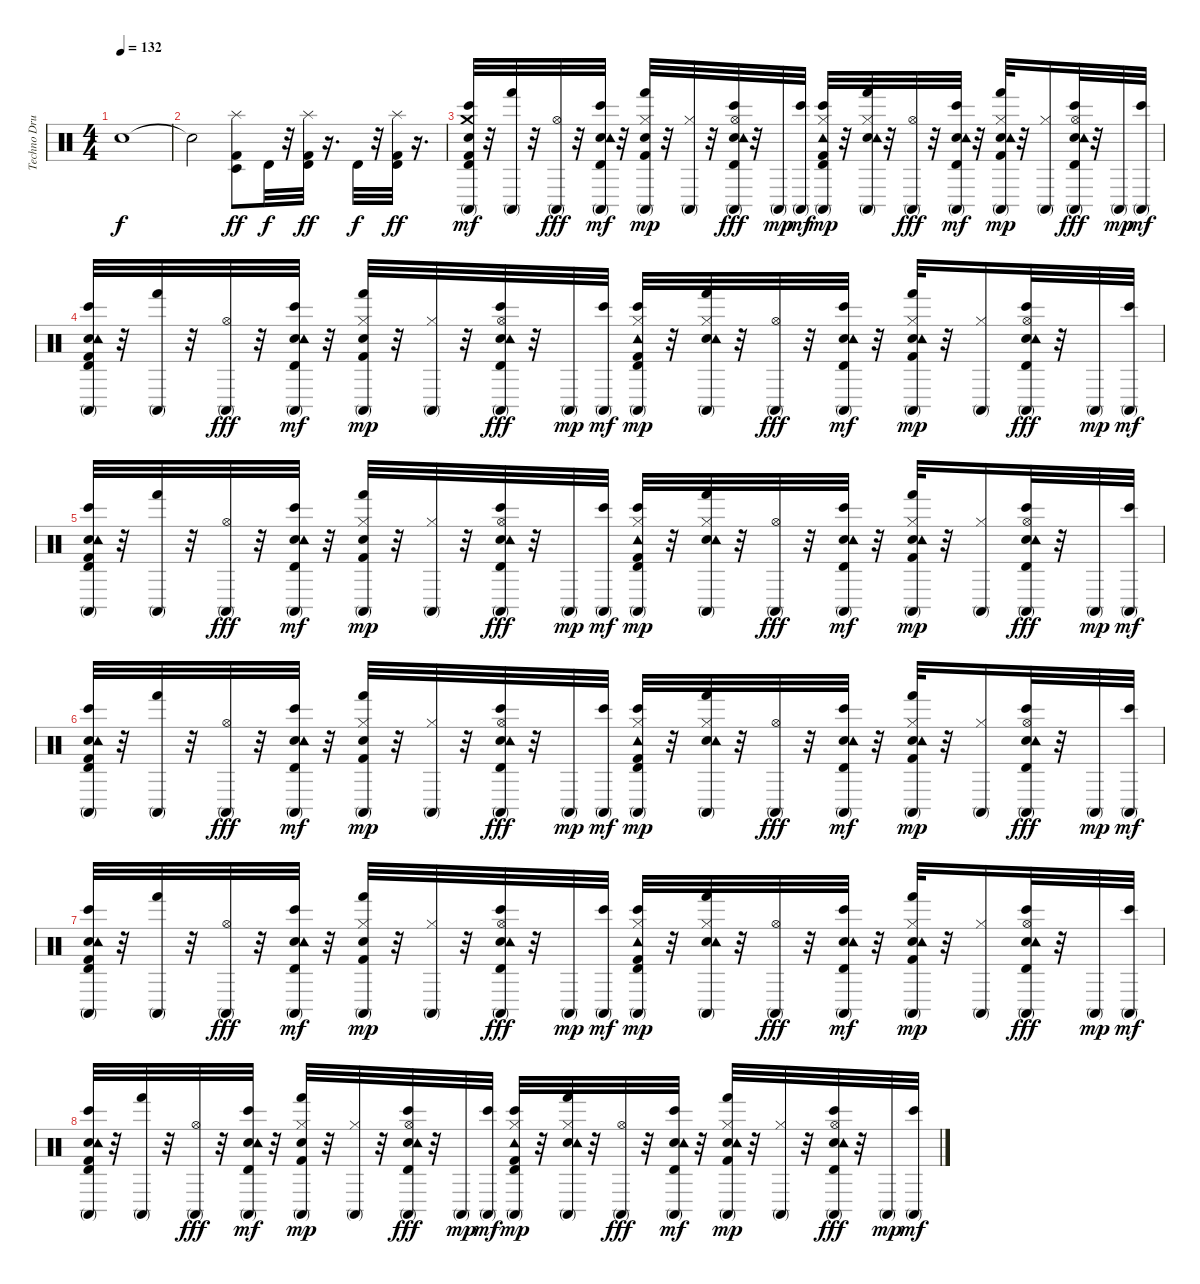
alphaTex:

\track ("Techno Drums" "Techno Dru") {instrument percussion}
\staff {score}
\articulation defaults
\ts (4 4)
\tempo 132
\clef neutral
\ks c "Snare (hit)"{t}.1{dy f}
|
"Snare (hit)"{t}.2 ("Timbale low (hit)" "Splash (hit)" "Kick (hit) 2").8{dy ff} "Timbale high (hit)".32{dy f} r.32 ("Timbale high (hit)" "Splash (hit)" "Kick (hit) 2").32{dy ff} r.16{d} "Timbale high (hit)".32{dy f} r.32 ("Timbale high (hit)" "Splash (hit)" "Kick (hit) 2").32{dy ff} r.16{d} |
("Kick (hit) 2" "Hand Clap (hit)" "Crash medium (hit)" "Conga high (mute)" "Bongo High (hit)" "Timbale high (hit)").32{dy mf} r.32 ("Conga high (mute)" "Hand (hit)").32 r.32 ("Conga high (mute)" "Hi-Hat (open)").32{dy fff} r.32 ("Hand Clap (hit)" "Tambourine (hit)" "Conga high (mute)" "Bongo High (hit)" "Timbale high (hit)").32{dy mf} r.32 ("Kick (hit) 2" "Hand Clap (hit)" "Conga high (mute)" "Hand (hit)" "Hi-Hat (closed)").32{dy mp} r.32 ("Conga high (mute)" "Hi-Hat (closed)").32 r.32 ("Hand Clap (hit)" "Tambourine (hit)" "Conga high (mute)" "Bongo High (hit)" "Timbale high (hit)" "Hi-Hat (open)").32{dy fff} r.32 "Conga high (mute)".32{dy mp} ("Conga high (mute)" "Bongo High (hit)").32{dy mf} ("Kick (hit) 2" "Tambourine (hit)" "Conga high (mute)" "Bongo High (hit)" "Timbale high (hit)" "Hi-Hat (closed)").32{dy mp} r.32 ("Hand Clap (hit)" "Tambourine (hit)" "Conga high (mute)" "Hand (hit)" "Hi-Hat (closed)").32 r.32 ("Conga high (mute)" "Hi-Hat (open)").32{dy fff} r.32 ("Hand Clap (hit)" "Tambourine (hit)" "Conga high (mute)" "Bongo High (hit)" "Timbale high (hit)").32{dy mf} r.32 ("Kick (hit) 2" "Hand Clap (hit)" "Tambourine (hit)" "Conga high (mute)" "Hand (hit)" "Hi-Hat (closed)").32{dy mp} r.32 ("Conga high (mute)" "Hi-Hat (closed)").16 ("Hand Clap (hit)" "Tambourine (hit)" "Conga high (mute)" "Bongo High (hit)" "Timbale high (hit)" "Hi-Hat (open)").32{dy fff} r.32 "Conga high (mute)".32{dy mp} ("Conga high (mute)" "Bongo High (hit)").32{dy mf} |
("Kick (hit) 2" "Hand Clap (hit)" "Tambourine (hit)" "Conga high (mute)" "Bongo High (hit)" "Timbale high (hit)").32 r.32 ("Conga high (mute)" "Hand (hit)").32 r.32 ("Conga high (mute)" "Hi-Hat (open)").32{dy fff} r.32 ("Hand Clap (hit)" "Tambourine (hit)" "Conga high (mute)" "Bongo High (hit)" "Timbale high (hit)").32{dy mf} r.32 ("Kick (hit) 2" "Hand Clap (hit)" "Conga high (mute)" "Hand (hit)" "Hi-Hat (closed)").32{dy mp} r.32 ("Conga high (mute)" "Hi-Hat (closed)").32 r.32 ("Hand Clap (hit)" "Tambourine (hit)" "Conga high (mute)" "Bongo High (hit)" "Timbale high (hit)" "Hi-Hat (open)").32{dy fff} r.32 "Conga high (mute)".32{dy mp} ("Conga high (mute)" "Bongo High (hit)").32{dy mf} ("Kick (hit) 2" "Tambourine (hit)" "Conga high (mute)" "Bongo High (hit)" "Timbale high (hit)" "Hi-Hat (closed)").32{dy mp} r.32 ("Hand Clap (hit)" "Tambourine (hit)" "Conga high (mute)" "Hand (hit)" "Hi-Hat (closed)").32 r.32 ("Conga high (mute)" "Hi-Hat (open)").32{dy fff} r.32 ("Hand Clap (hit)" "Tambourine (hit)" "Conga high (mute)" "Bongo High (hit)" "Timbale high (hit)").32{dy mf} r.32 ("Kick (hit) 2" "Hand Clap (hit)" "Tambourine (hit)" "Conga high (mute)" "Hand (hit)" "Hi-Hat (closed)").32{dy mp} r.32 ("Conga high (mute)" "Hi-Hat (closed)").16 ("Hand Clap (hit)" "Tambourine (hit)" "Conga high (mute)" "Bongo High (hit)" "Timbale high (hit)" "Hi-Hat (open)").32{dy fff} r.32 "Conga high (mute)".32{dy mp} ("Conga high (mute)" "Bongo High (hit)").32{dy mf} |
("Kick (hit) 2" "Hand Clap (hit)" "Tambourine (hit)" "Conga high (mute)" "Bongo High (hit)" "Timbale high (hit)").32 r.32 ("Conga high (mute)" "Hand (hit)").32 r.32 ("Conga high (mute)" "Hi-Hat (open)").32{dy fff} r.32 ("Hand Clap (hit)" "Tambourine (hit)" "Conga high (mute)" "Bongo High (hit)" "Timbale high (hit)").32{dy mf} r.32 ("Kick (hit) 2" "Hand Clap (hit)" "Conga high (mute)" "Hand (hit)" "Hi-Hat (closed)").32{dy mp} r.32 ("Conga high (mute)" "Hi-Hat (closed)").32 r.32 ("Hand Clap (hit)" "Tambourine (hit)" "Conga high (mute)" "Bongo High (hit)" "Timbale high (hit)" "Hi-Hat (open)").32{dy fff} r.32 "Conga high (mute)".32{dy mp} ("Conga high (mute)" "Bongo High (hit)").32{dy mf} ("Kick (hit) 2" "Tambourine (hit)" "Conga high (mute)" "Bongo High (hit)" "Timbale high (hit)" "Hi-Hat (closed)").32{dy mp} r.32 ("Hand Clap (hit)" "Tambourine (hit)" "Conga high (mute)" "Hand (hit)" "Hi-Hat (closed)").32 r.32 ("Conga high (mute)" "Hi-Hat (open)").32{dy fff} r.32 ("Hand Clap (hit)" "Tambourine (hit)" "Conga high (mute)" "Bongo High (hit)" "Timbale high (hit)").32{dy mf} r.32 ("Kick (hit) 2" "Hand Clap (hit)" "Tambourine (hit)" "Conga high (mute)" "Hand (hit)" "Hi-Hat (closed)").32{dy mp} r.32 ("Conga high (mute)" "Hi-Hat (closed)").16 ("Hand Clap (hit)" "Tambourine (hit)" "Conga high (mute)" "Bongo High (hit)" "Timbale high (hit)" "Hi-Hat (open)").32{dy fff} r.32 "Conga high (mute)".32{dy mp} ("Conga high (mute)" "Bongo High (hit)").32{dy mf} |
("Kick (hit) 2" "Hand Clap (hit)" "Tambourine (hit)" "Conga high (mute)" "Bongo High (hit)" "Timbale high (hit)").32 r.32 ("Conga high (mute)" "Hand (hit)").32 r.32 ("Conga high (mute)" "Hi-Hat (open)").32{dy fff} r.32 ("Hand Clap (hit)" "Tambourine (hit)" "Conga high (mute)" "Bongo High (hit)" "Timbale high (hit)").32{dy mf} r.32 ("Kick (hit) 2" "Hand Clap (hit)" "Conga high (mute)" "Hand (hit)" "Hi-Hat (closed)").32{dy mp} r.32 ("Conga high (mute)" "Hi-Hat (closed)").32 r.32 ("Hand Clap (hit)" "Tambourine (hit)" "Conga high (mute)" "Bongo High (hit)" "Timbale high (hit)" "Hi-Hat (open)").32{dy fff} r.32 "Conga high (mute)".32{dy mp} ("Conga high (mute)" "Bongo High (hit)").32{dy mf} ("Kick (hit) 2" "Tambourine (hit)" "Conga high (mute)" "Bongo High (hit)" "Timbale high (hit)" "Hi-Hat (closed)").32{dy mp} r.32 ("Hand Clap (hit)" "Tambourine (hit)" "Conga high (mute)" "Hand (hit)" "Hi-Hat (closed)").32 r.32 ("Conga high (mute)" "Hi-Hat (open)").32{dy fff} r.32 ("Hand Clap (hit)" "Tambourine (hit)" "Conga high (mute)" "Bongo High (hit)" "Timbale high (hit)").32{dy mf} r.32 ("Kick (hit) 2" "Hand Clap (hit)" "Tambourine (hit)" "Conga high (mute)" "Hand (hit)" "Hi-Hat (closed)").32{dy mp} r.32 ("Conga high (mute)" "Hi-Hat (closed)").16 ("Hand Clap (hit)" "Tambourine (hit)" "Conga high (mute)" "Bongo High (hit)" "Timbale high (hit)" "Hi-Hat (open)").32{dy fff} r.32 "Conga high (mute)".32{dy mp} ("Conga high (mute)" "Bongo High (hit)").32{dy mf} |
("Kick (hit) 2" "Hand Clap (hit)" "Tambourine (hit)" "Conga high (mute)" "Bongo High (hit)" "Timbale high (hit)").32 r.32 ("Conga high (mute)" "Hand (hit)").32 r.32 ("Conga high (mute)" "Hi-Hat (open)").32{dy fff} r.32 ("Hand Clap (hit)" "Tambourine (hit)" "Conga high (mute)" "Bongo High (hit)" "Timbale high (hit)").32{dy mf} r.32 ("Kick (hit) 2" "Hand Clap (hit)" "Conga high (mute)" "Hand (hit)" "Hi-Hat (closed)").32{dy mp} r.32 ("Conga high (mute)" "Hi-Hat (closed)").32 r.32 ("Hand Clap (hit)" "Tambourine (hit)" "Conga high (mute)" "Bongo High (hit)" "Timbale high (hit)" "Hi-Hat (open)").32{dy fff} r.32 "Conga high (mute)".32{dy mp} ("Conga high (mute)" "Bongo High (hit)").32{dy mf} ("Kick (hit) 2" "Tambourine (hit)" "Conga high (mute)" "Bongo High (hit)" "Timbale high (hit)" "Hi-Hat (closed)").32{dy mp} r.32 ("Hand Clap (hit)" "Tambourine (hit)" "Conga high (mute)" "Hand (hit)" "Hi-Hat (closed)").32 r.32 ("Conga high (mute)" "Hi-Hat (open)").32{dy fff} r.32 ("Hand Clap (hit)" "Tambourine (hit)" "Conga high (mute)" "Bongo High (hit)" "Timbale high (hit)").32{dy mf} r.32 ("Kick (hit) 2" "Hand Clap (hit)" "Tambourine (hit)" "Conga high (mute)" "Hand (hit)" "Hi-Hat (closed)").32{dy mp} r.32 ("Conga high (mute)" "Hi-Hat (closed)").16 ("Hand Clap (hit)" "Tambourine (hit)" "Conga high (mute)" "Bongo High (hit)" "Timbale high (hit)" "Hi-Hat (open)").32{dy fff} r.32 "Conga high (mute)".32{dy mp} ("Conga high (mute)" "Bongo High (hit)").32{dy mf} |
("Kick (hit) 2" "Hand Clap (hit)" "Tambourine (hit)" "Conga high (mute)" "Bongo High (hit)" "Timbale high (hit)").32 r.32 ("Conga high (mute)" "Hand (hit)").32 r.32 ("Conga high (mute)" "Hi-Hat (open)").32{dy fff} r.32 ("Hand Clap (hit)" "Tambourine (hit)" "Conga high (mute)" "Bongo High (hit)" "Timbale high (hit)").32{dy mf} r.32 ("Kick (hit) 2" "Hand Clap (hit)" "Conga high (mute)" "Hand (hit)" "Hi-Hat (closed)").32{dy mp} r.32 ("Conga high (mute)" "Hi-Hat (closed)").32 r.32 ("Hand Clap (hit)" "Tambourine (hit)" "Conga high (mute)" "Bongo High (hit)" "Timbale high (hit)" "Hi-Hat (open)").32{dy fff} r.32 "Conga high (mute)".32{dy mp} ("Conga high (mute)" "Bongo High (hit)").32{dy mf} ("Kick (hit) 2" "Tambourine (hit)" "Conga high (mute)" "Bongo High (hit)" "Timbale high (hit)" "Hi-Hat (closed)").32{dy mp} r.32 ("Hand Clap (hit)" "Tambourine (hit)" "Conga high (mute)" "Hand (hit)" "Hi-Hat (closed)").32 r.32 ("Conga high (mute)" "Hi-Hat (open)").32{dy fff} r.32 ("Hand Clap (hit)" "Tambourine (hit)" "Conga high (mute)" "Bongo High (hit)" "Timbale high (hit)").32{dy mf} r.32 ("Kick (hit) 2" "Hand Clap (hit)" "Tambourine (hit)" "Conga high (mute)" "Hand (hit)" "Hi-Hat (closed)").32{dy mp} r.32 ("Conga high (mute)" "Hi-Hat (closed)").32 r.32 ("Hand Clap (hit)" "Tambourine (hit)" "Conga high (mute)" "Bongo High (hit)" "Timbale high (hit)" "Hi-Hat (open)").32{dy fff} r.32 "Conga high (mute)".32{dy mp} ("Conga high (mute)" "Bongo High (hit)").32{dy mf}
